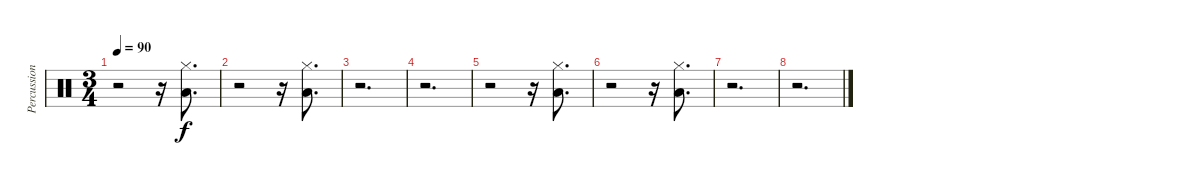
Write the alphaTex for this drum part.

\track ("Percussioni" "Percussion") {instrument percussion}
\staff {score}
\articulation defaults
\ts (3 4)
\tempo 90
\clef neutral
\ks c
r.2{dy f} r.16 ("Hi-Hat (closed)" "Low Floor Tom (hit)").8{d} |
r.2 r.16 ("Hi-Hat (closed)" "Low Floor Tom (hit)").8{d} |
r.2{d} |
r.2{d} |
r.2 r.16 ("Hi-Hat (closed)" "Low Floor Tom (hit)").8{d} |
r.2 r.16 ("Hi-Hat (closed)" "Low Floor Tom (hit)").8{d} |
r.2{d} |
r.2{d}
